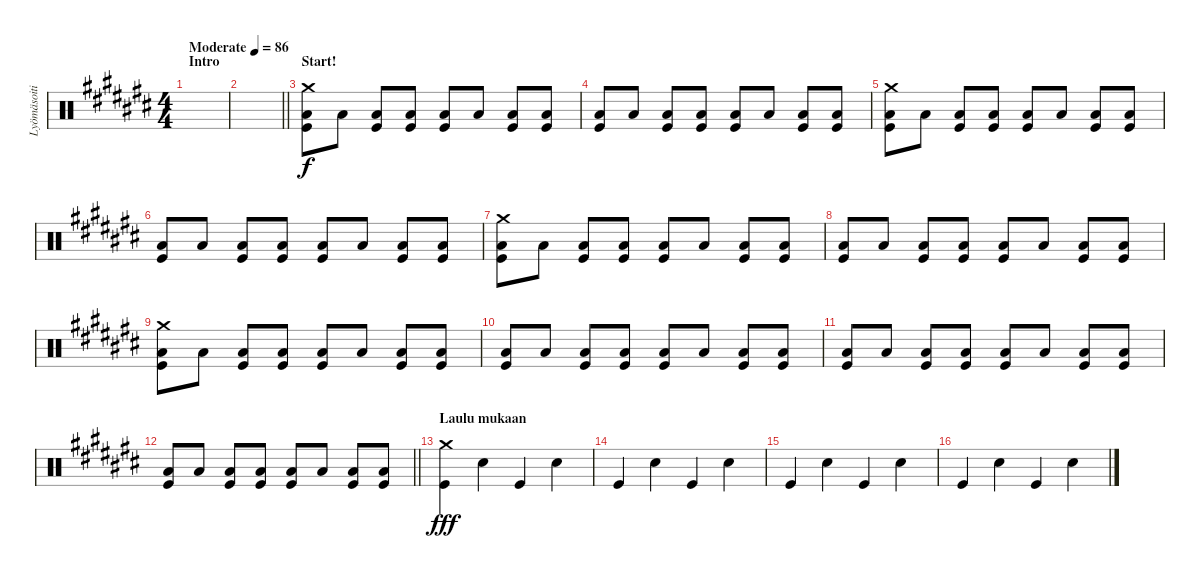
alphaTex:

\track ("Lyömäsoitin" "Lyömäsoiti") {instrument percussion}
\staff {score}
\articulation defaults
\ts (4 4)
\section ("" "Intro")
\tempo (86 "Moderate")
\clef neutral
\ks c#
|
\barLineRight lightlight
|
\section ("" "Start!")
("Crash medium (hit)" "Low Floor Tom (hit)" "Kick (hit)").8 "Low Floor Tom (hit)".8 ("Low Floor Tom (hit)" "Kick (hit)").8 ("Low Floor Tom (hit)" "Kick (hit)").8 ("Low Floor Tom (hit)" "Kick (hit)").8 "Low Floor Tom (hit)".8 ("Low Floor Tom (hit)" "Kick (hit)").8 ("Low Floor Tom (hit)" "Kick (hit)").8 |
("Low Floor Tom (hit)" "Kick (hit)").8 "Low Floor Tom (hit)".8 ("Low Floor Tom (hit)" "Kick (hit)").8 ("Low Floor Tom (hit)" "Kick (hit)").8 ("Low Floor Tom (hit)" "Kick (hit)").8 "Low Floor Tom (hit)".8 ("Low Floor Tom (hit)" "Kick (hit)").8 ("Low Floor Tom (hit)" "Kick (hit)").8 |
("Crash medium (hit)" "Low Floor Tom (hit)" "Kick (hit)").8 "Low Floor Tom (hit)".8 ("Low Floor Tom (hit)" "Kick (hit)").8 ("Low Floor Tom (hit)" "Kick (hit)").8 ("Low Floor Tom (hit)" "Kick (hit)").8 "Low Floor Tom (hit)".8 ("Low Floor Tom (hit)" "Kick (hit)").8 ("Low Floor Tom (hit)" "Kick (hit)").8 |
("Low Floor Tom (hit)" "Kick (hit)").8 "Low Floor Tom (hit)".8 ("Low Floor Tom (hit)" "Kick (hit)").8 ("Low Floor Tom (hit)" "Kick (hit)").8 ("Low Floor Tom (hit)" "Kick (hit)").8 "Low Floor Tom (hit)".8 ("Low Floor Tom (hit)" "Kick (hit)").8 ("Low Floor Tom (hit)" "Kick (hit)").8 |
("Crash medium (hit)" "Low Floor Tom (hit)" "Kick (hit)").8 "Low Floor Tom (hit)".8 ("Low Floor Tom (hit)" "Kick (hit)").8 ("Low Floor Tom (hit)" "Kick (hit)").8 ("Low Floor Tom (hit)" "Kick (hit)").8 "Low Floor Tom (hit)".8 ("Low Floor Tom (hit)" "Kick (hit)").8 ("Low Floor Tom (hit)" "Kick (hit)").8 |
("Low Floor Tom (hit)" "Kick (hit)").8 "Low Floor Tom (hit)".8 ("Low Floor Tom (hit)" "Kick (hit)").8 ("Low Floor Tom (hit)" "Kick (hit)").8 ("Low Floor Tom (hit)" "Kick (hit)").8 "Low Floor Tom (hit)".8 ("Low Floor Tom (hit)" "Kick (hit)").8 ("Low Floor Tom (hit)" "Kick (hit)").8 |
("Crash medium (hit)" "Low Floor Tom (hit)" "Kick (hit)").8 "Low Floor Tom (hit)".8 ("Low Floor Tom (hit)" "Kick (hit)").8 ("Low Floor Tom (hit)" "Kick (hit)").8 ("Low Floor Tom (hit)" "Kick (hit)").8 "Low Floor Tom (hit)".8 ("Low Floor Tom (hit)" "Kick (hit)").8 ("Low Floor Tom (hit)" "Kick (hit)").8 |
("Low Floor Tom (hit)" "Kick (hit)").8 "Low Floor Tom (hit)".8 ("Low Floor Tom (hit)" "Kick (hit)").8 ("Low Floor Tom (hit)" "Kick (hit)").8 ("Low Floor Tom (hit)" "Kick (hit)").8 "Low Floor Tom (hit)".8 ("Low Floor Tom (hit)" "Kick (hit)").8 ("Low Floor Tom (hit)" "Kick (hit)").8 |
("Low Floor Tom (hit)" "Kick (hit)").8 "Low Floor Tom (hit)".8 ("Low Floor Tom (hit)" "Kick (hit)").8 ("Low Floor Tom (hit)" "Kick (hit)").8 ("Low Floor Tom (hit)" "Kick (hit)").8 "Low Floor Tom (hit)".8 ("Low Floor Tom (hit)" "Kick (hit)").8 ("Low Floor Tom (hit)" "Kick (hit)").8 |
\barLineRight lightlight
("Low Floor Tom (hit)" "Kick (hit)").8 "Low Floor Tom (hit)".8 ("Low Floor Tom (hit)" "Kick (hit)").8 ("Low Floor Tom (hit)" "Kick (hit)").8 ("Low Floor Tom (hit)" "Kick (hit)").8 "Low Floor Tom (hit)".8 ("Low Floor Tom (hit)" "Kick (hit)").8 ("Low Floor Tom (hit)" "Kick (hit)").8 |
\section ("" "Laulu mukaan")
("Crash medium (hit)" "Kick (hit)").4{dy fff} "Snare (hit) 2".4 "Kick (hit)".4 "Snare (hit) 2".4 |
"Kick (hit)".4 "Snare (hit) 2".4 "Kick (hit)".4 "Snare (hit) 2".4 |
"Kick (hit)".4 "Snare (hit) 2".4 "Kick (hit)".4 "Snare (hit) 2".4 |
"Kick (hit)".4 "Snare (hit) 2".4 "Kick (hit)".4 "Snare (hit) 2".4
